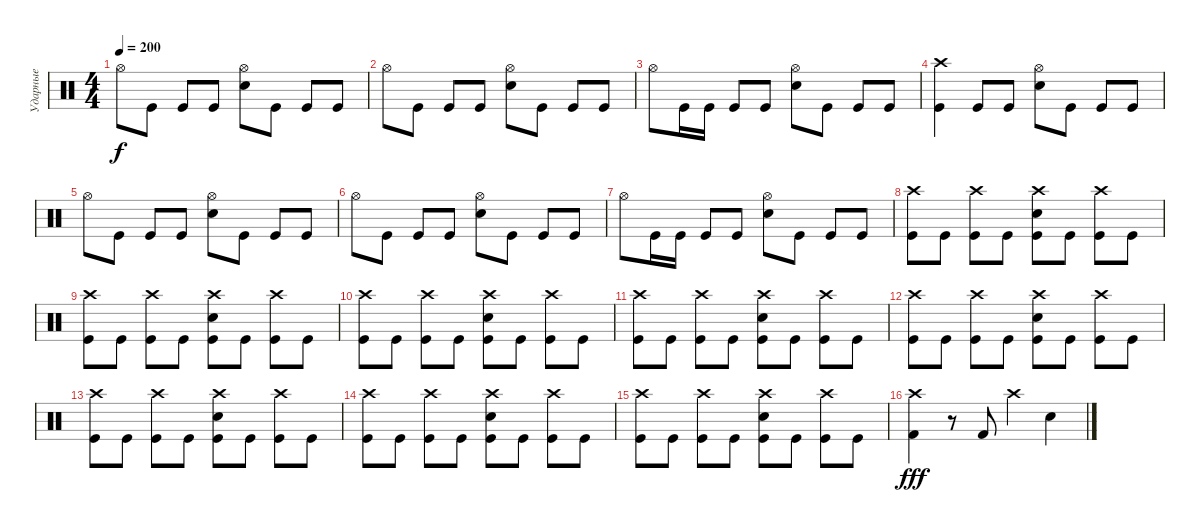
\track ("Ударные" "Ударные") {instrument percussion}
\staff {score}
\articulation defaults
\ts (4 4)
\tempo 200
\clef neutral
\ks c "Hi-Hat (open)".8{dy f} "Kick (hit)".8 "Kick (hit)".8 "Kick (hit)".8
("Snare (hit) 2" "Hi-Hat (open)").8 "Kick (hit)".8 "Kick (hit)".8 "Kick (hit)".8 |
"Hi-Hat (open)".8 "Kick (hit)".8 "Kick (hit)".8 "Kick (hit)".8 ("Hi-Hat (open)" "Snare (hit) 2").8 "Kick (hit)".8 "Kick (hit)".8 "Kick (hit)".8 |
"Hi-Hat (open)".8 "Kick (hit)".16 "Kick (hit)".16 "Kick (hit)".8 "Kick (hit)".8 ("Hi-Hat (open)" "Snare (hit) 2").8 "Kick (hit)".8 "Kick (hit)".8 "Kick (hit)".8 |
("Kick (hit)" "Crash high (hit)").4 "Kick (hit)".8 "Kick (hit)".8 ("Snare (hit) 2" "Hi-Hat (open)").8 "Kick (hit)".8 "Kick (hit)".8 "Kick (hit)".8 |
"Hi-Hat (open)".8 "Kick (hit)".8 "Kick (hit)".8 "Kick (hit)".8 ("Snare (hit) 2" "Hi-Hat (open)").8 "Kick (hit)".8 "Kick (hit)".8 "Kick (hit)".8 |
"Hi-Hat (open)".8 "Kick (hit)".8 "Kick (hit)".8 "Kick (hit)".8 ("Hi-Hat (open)" "Snare (hit) 2").8 "Kick (hit)".8 "Kick (hit)".8 "Kick (hit)".8 |
"Hi-Hat (open)".8 "Kick (hit)".16 "Kick (hit)".16 "Kick (hit)".8 "Kick (hit)".8 ("Hi-Hat (open)" "Snare (hit) 2").8 "Kick (hit)".8 "Kick (hit)".8 "Kick (hit)".8 |
("Kick (hit)" "Crash high (hit)").8 "Kick (hit)".8 ("Kick (hit)" "Crash high (hit)").8 "Kick (hit)".8 ("Kick (hit)" "Snare (hit) 2" "Crash high (hit)").8 "Kick (hit)".8 ("Kick (hit)" "Crash high (hit)").8 "Kick (hit)".8 |
("Kick (hit)" "Crash high (hit)").8 "Kick (hit)".8 ("Kick (hit)" "Crash high (hit)").8 "Kick (hit)".8 ("Kick (hit)" "Snare (hit) 2" "Crash high (hit)").8 "Kick (hit)".8 ("Kick (hit)" "Crash high (hit)").8 "Kick (hit)".8 |
("Kick (hit)" "Crash high (hit)").8 "Kick (hit)".8 ("Kick (hit)" "Crash high (hit)").8 "Kick (hit)".8 ("Kick (hit)" "Snare (hit) 2" "Crash high (hit)").8 "Kick (hit)".8 ("Kick (hit)" "Crash high (hit)").8 "Kick (hit)".8 |
("Kick (hit)" "Crash high (hit)").8 "Kick (hit)".8 ("Kick (hit)" "Crash high (hit)").8 "Kick (hit)".8 ("Kick (hit)" "Snare (hit) 2" "Crash high (hit)").8 "Kick (hit)".8 ("Kick (hit)" "Crash high (hit)").8 "Kick (hit)".8 |
("Kick (hit)" "Crash high (hit)").8 "Kick (hit)".8 ("Kick (hit)" "Crash high (hit)").8 "Kick (hit)".8 ("Kick (hit)" "Snare (hit) 2" "Crash high (hit)").8 "Kick (hit)".8 ("Kick (hit)" "Crash high (hit)").8 "Kick (hit)".8 |
("Kick (hit)" "Crash high (hit)").8 "Kick (hit)".8 ("Kick (hit)" "Crash high (hit)").8 "Kick (hit)".8 ("Kick (hit)" "Snare (hit) 2" "Crash high (hit)").8 "Kick (hit)".8 ("Kick (hit)" "Crash high (hit)").8 "Kick (hit)".8 |
("Kick (hit)" "Crash high (hit)").8 "Kick (hit)".8 ("Kick (hit)" "Crash high (hit)").8 "Kick (hit)".8 ("Kick (hit)" "Snare (hit) 2" "Crash high (hit)").8 "Kick (hit)".8 ("Kick (hit)" "Crash high (hit)").8 "Kick (hit)".8 |
("Kick (hit)" "Crash high (hit)").8 "Kick (hit)".8 ("Kick (hit)" "Crash high (hit)").8 "Kick (hit)".8 ("Kick (hit)" "Snare (hit) 2" "Crash high (hit)").8 "Kick (hit)".8 ("Kick (hit)" "Crash high (hit)").8 "Kick (hit)".8 |
("Crash high (hit)" "Kick (hit) 2").4{dy fff} r.8 "Kick (hit) 2".8 "Crash high (hit)".4 "Electric Snare (hit)".4
